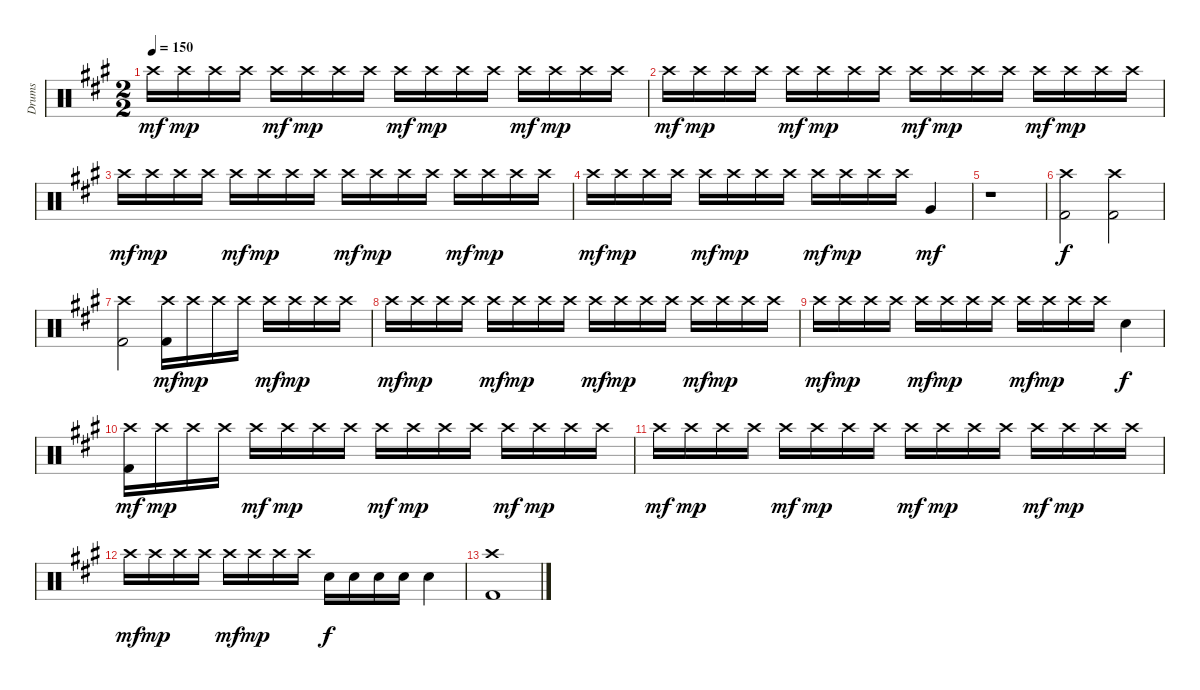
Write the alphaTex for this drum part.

\track ("Drums" "Drums") {instrument percussion}
\staff {score}
\articulation defaults
\ts (2 2)
\tempo 150
\clef neutral
\ks a "Crash high (hit)".16{dy mf} "Crash high (hit)".16{dy mp} "Crash high (hit)".16 "Crash high (hit)".16 "Crash high (hit)".16{dy mf} "Crash high (hit)".16{dy mp} "Crash high (hit)".16 "Crash high (hit)".16 "Crash high (hit)".16{dy mf} "Crash high (hit)".16{dy mp} "Crash high (hit)".16 "Crash high (hit)".16 "Crash high (hit)".16{dy mf} "Crash high (hit)".16{dy mp} "Crash high (hit)".16 "Crash high (hit)".16
|
"Crash high (hit)".16{dy mf} "Crash high (hit)".16{dy mp} "Crash high (hit)".16 "Crash high (hit)".16 "Crash high (hit)".16{dy mf} "Crash high (hit)".16{dy mp} "Crash high (hit)".16 "Crash high (hit)".16 "Crash high (hit)".16{dy mf} "Crash high (hit)".16{dy mp} "Crash high (hit)".16 "Crash high (hit)".16 "Crash high (hit)".16{dy mf} "Crash high (hit)".16{dy mp} "Crash high (hit)".16 "Crash high (hit)".16 |
"Crash high (hit)".16{dy mf} "Crash high (hit)".16{dy mp} "Crash high (hit)".16 "Crash high (hit)".16 "Crash high (hit)".16{dy mf} "Crash high (hit)".16{dy mp} "Crash high (hit)".16 "Crash high (hit)".16 "Crash high (hit)".16{dy mf} "Crash high (hit)".16{dy mp} "Crash high (hit)".16 "Crash high (hit)".16 "Crash high (hit)".16{dy mf} "Crash high (hit)".16{dy mp} "Crash high (hit)".16 "Crash high (hit)".16 |
"Crash high (hit)".16{dy mf} "Crash high (hit)".16{dy mp} "Crash high (hit)".16 "Crash high (hit)".16 "Crash high (hit)".16{dy mf} "Crash high (hit)".16{dy mp} "Crash high (hit)".16 "Crash high (hit)".16 "Crash high (hit)".16{dy mf} "Crash high (hit)".16{dy mp} "Crash high (hit)".16 "Crash high (hit)".16 "Very Low Tom (hit)".4{dy mf} |
r.1 |
("Crash high (hit)" "Kick (hit) 2").2{dy f} ("Crash high (hit)" "Kick (hit) 2").2 |
("Crash high (hit)" "Kick (hit) 2").2 ("Crash high (hit)" "Kick (hit) 2").16{dy mf} "Crash high (hit)".16{dy mp} "Crash high (hit)".16 "Crash high (hit)".16 "Crash high (hit)".16{dy mf} "Crash high (hit)".16{dy mp} "Crash high (hit)".16 "Crash high (hit)".16 |
"Crash high (hit)".16{dy mf} "Crash high (hit)".16{dy mp} "Crash high (hit)".16 "Crash high (hit)".16 "Crash high (hit)".16{dy mf} "Crash high (hit)".16{dy mp} "Crash high (hit)".16 "Crash high (hit)".16 "Crash high (hit)".16{dy mf} "Crash high (hit)".16{dy mp} "Crash high (hit)".16 "Crash high (hit)".16 "Crash high (hit)".16{dy mf} "Crash high (hit)".16{dy mp} "Crash high (hit)".16 "Crash high (hit)".16 |
"Crash high (hit)".16{dy mf} "Crash high (hit)".16{dy mp} "Crash high (hit)".16 "Crash high (hit)".16 "Crash high (hit)".16{dy mf} "Crash high (hit)".16{dy mp} "Crash high (hit)".16 "Crash high (hit)".16 "Crash high (hit)".16{dy mf} "Crash high (hit)".16{dy mp} "Crash high (hit)".16 "Crash high (hit)".16 "Electric Snare (hit)".4{dy f} |
("Crash high (hit)" "Kick (hit) 2").16{dy mf} "Crash high (hit)".16{dy mp} "Crash high (hit)".16 "Crash high (hit)".16 "Crash high (hit)".16{dy mf} "Crash high (hit)".16{dy mp} "Crash high (hit)".16 "Crash high (hit)".16 "Crash high (hit)".16{dy mf} "Crash high (hit)".16{dy mp} "Crash high (hit)".16 "Crash high (hit)".16 "Crash high (hit)".16{dy mf} "Crash high (hit)".16{dy mp} "Crash high (hit)".16 "Crash high (hit)".16 |
"Crash high (hit)".16{dy mf} "Crash high (hit)".16{dy mp} "Crash high (hit)".16 "Crash high (hit)".16 "Crash high (hit)".16{dy mf} "Crash high (hit)".16{dy mp} "Crash high (hit)".16 "Crash high (hit)".16 "Crash high (hit)".16{dy mf} "Crash high (hit)".16{dy mp} "Crash high (hit)".16 "Crash high (hit)".16 "Crash high (hit)".16{dy mf} "Crash high (hit)".16{dy mp} "Crash high (hit)".16 "Crash high (hit)".16 |
"Crash high (hit)".16{dy mf} "Crash high (hit)".16{dy mp} "Crash high (hit)".16 "Crash high (hit)".16 "Crash high (hit)".16{dy mf} "Crash high (hit)".16{dy mp} "Crash high (hit)".16 "Crash high (hit)".16 "Electric Snare (hit)".16{dy f} "Electric Snare (hit)".16 "Electric Snare (hit)".16 "Electric Snare (hit)".16 "Electric Snare (hit)".4 |
("Crash high (hit)" "Kick (hit) 2").1
